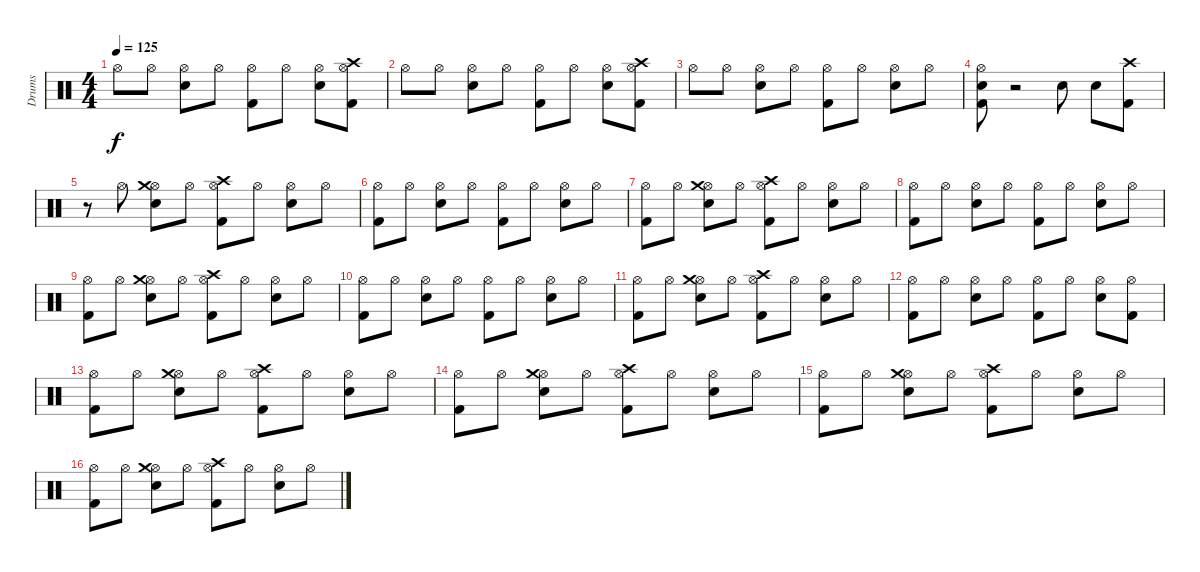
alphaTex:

\track ("Drums" "Drums") {instrument percussion}
\staff {score}
\articulation defaults
\ts (4 4)
\tempo 125
\clef neutral
\ks c "Hi-Hat (open)".8{dy f} "Hi-Hat (open)".8
("Electric Snare (hit)" "Hi-Hat (open)").8 "Hi-Hat (open)".8 ("Kick (hit) 2" "Hi-Hat (open)").8 "Hi-Hat (open)".8 ("Electric Snare (hit)" "Hi-Hat (open)").8 ("Kick (hit) 2" "Hi-Hat (open)" "Crash high (hit)").8 |
"Hi-Hat (open)".8 "Hi-Hat (open)".8 ("Electric Snare (hit)" "Hi-Hat (open)").8 "Hi-Hat (open)".8 ("Kick (hit) 2" "Hi-Hat (open)").8 "Hi-Hat (open)".8 ("Electric Snare (hit)" "Hi-Hat (open)").8 ("Kick (hit) 2" "Hi-Hat (open)" "Crash high (hit)").8 |
"Hi-Hat (open)".8 "Hi-Hat (open)".8 ("Electric Snare (hit)" "Hi-Hat (open)").8 "Hi-Hat (open)".8 ("Kick (hit) 2" "Hi-Hat (open)").8 "Hi-Hat (open)".8 ("Electric Snare (hit)" "Hi-Hat (open)").8 "Hi-Hat (open)".8 |
("Kick (hit) 2" "Electric Snare (hit)" "Hi-Hat (open)").8 r.2 "Electric Snare (hit)".8 "Electric Snare (hit)".8 ("Kick (hit) 2" "Crash high (hit)").8 |
r.8 "Hi-Hat (open)".8 ("Electric Snare (hit)" "Hi-Hat (open)" "Crash medium (hit)").8 "Hi-Hat (open)".8 ("Kick (hit) 2" "Hi-Hat (open)" "Crash high (hit)").8 "Hi-Hat (open)".8 ("Electric Snare (hit)" "Hi-Hat (open)").8 "Hi-Hat (open)".8 |
("Kick (hit) 2" "Hi-Hat (open)").8 "Hi-Hat (open)".8 ("Electric Snare (hit)" "Hi-Hat (open)").8 "Hi-Hat (open)".8 ("Kick (hit) 2" "Hi-Hat (open)").8 "Hi-Hat (open)".8 ("Electric Snare (hit)" "Hi-Hat (open)").8 "Hi-Hat (open)".8 |
("Kick (hit) 2" "Hi-Hat (open)").8 "Hi-Hat (open)".8 ("Electric Snare (hit)" "Hi-Hat (open)" "Crash medium (hit)").8 "Hi-Hat (open)".8 ("Kick (hit) 2" "Hi-Hat (open)" "Crash high (hit)").8 "Hi-Hat (open)".8 ("Electric Snare (hit)" "Hi-Hat (open)").8 "Hi-Hat (open)".8 |
("Kick (hit) 2" "Hi-Hat (open)").8 "Hi-Hat (open)".8 ("Electric Snare (hit)" "Hi-Hat (open)").8 "Hi-Hat (open)".8 ("Kick (hit) 2" "Hi-Hat (open)").8 "Hi-Hat (open)".8 ("Electric Snare (hit)" "Hi-Hat (open)").8 "Hi-Hat (open)".8 |
("Kick (hit) 2" "Hi-Hat (open)").8 "Hi-Hat (open)".8 ("Electric Snare (hit)" "Hi-Hat (open)" "Crash medium (hit)").8 "Hi-Hat (open)".8 ("Kick (hit) 2" "Hi-Hat (open)" "Crash high (hit)").8 "Hi-Hat (open)".8 ("Electric Snare (hit)" "Hi-Hat (open)").8 "Hi-Hat (open)".8 |
("Kick (hit) 2" "Hi-Hat (open)").8 "Hi-Hat (open)".8 ("Electric Snare (hit)" "Hi-Hat (open)").8 "Hi-Hat (open)".8 ("Kick (hit) 2" "Hi-Hat (open)").8 "Hi-Hat (open)".8 ("Electric Snare (hit)" "Hi-Hat (open)").8 "Hi-Hat (open)".8 |
("Kick (hit) 2" "Hi-Hat (open)").8 "Hi-Hat (open)".8 ("Electric Snare (hit)" "Hi-Hat (open)" "Crash medium (hit)").8 "Hi-Hat (open)".8 ("Kick (hit) 2" "Hi-Hat (open)" "Crash high (hit)").8 "Hi-Hat (open)".8 ("Electric Snare (hit)" "Hi-Hat (open)").8 "Hi-Hat (open)".8 |
("Kick (hit) 2" "Hi-Hat (open)").8 "Hi-Hat (open)".8 ("Electric Snare (hit)" "Hi-Hat (open)").8 "Hi-Hat (open)".8 ("Kick (hit) 2" "Hi-Hat (open)").8 "Hi-Hat (open)".8 ("Electric Snare (hit)" "Hi-Hat (open)").8 ("Kick (hit) 2" "Hi-Hat (open)").8 |
("Kick (hit) 2" "Hi-Hat (open)").8 "Hi-Hat (open)".8 ("Electric Snare (hit)" "Hi-Hat (open)" "Crash medium (hit)").8 "Hi-Hat (open)".8 ("Kick (hit) 2" "Hi-Hat (open)" "Crash high (hit)").8 "Hi-Hat (open)".8 ("Electric Snare (hit)" "Hi-Hat (open)").8 "Hi-Hat (open)".8 |
("Kick (hit) 2" "Hi-Hat (open)").8 "Hi-Hat (open)".8 ("Electric Snare (hit)" "Hi-Hat (open)" "Crash medium (hit)").8 "Hi-Hat (open)".8 ("Kick (hit) 2" "Hi-Hat (open)" "Crash high (hit)").8 "Hi-Hat (open)".8 ("Electric Snare (hit)" "Hi-Hat (open)").8 "Hi-Hat (open)".8 |
("Kick (hit) 2" "Hi-Hat (open)").8 "Hi-Hat (open)".8 ("Electric Snare (hit)" "Hi-Hat (open)" "Crash medium (hit)").8 "Hi-Hat (open)".8 ("Kick (hit) 2" "Hi-Hat (open)" "Crash high (hit)").8 "Hi-Hat (open)".8 ("Electric Snare (hit)" "Hi-Hat (open)").8 "Hi-Hat (open)".8 |
("Kick (hit) 2" "Hi-Hat (open)").8 "Hi-Hat (open)".8 ("Electric Snare (hit)" "Hi-Hat (open)" "Crash medium (hit)").8 "Hi-Hat (open)".8 ("Kick (hit) 2" "Hi-Hat (open)" "Crash high (hit)").8 "Hi-Hat (open)".8 ("Electric Snare (hit)" "Hi-Hat (open)").8 "Hi-Hat (open)".8
